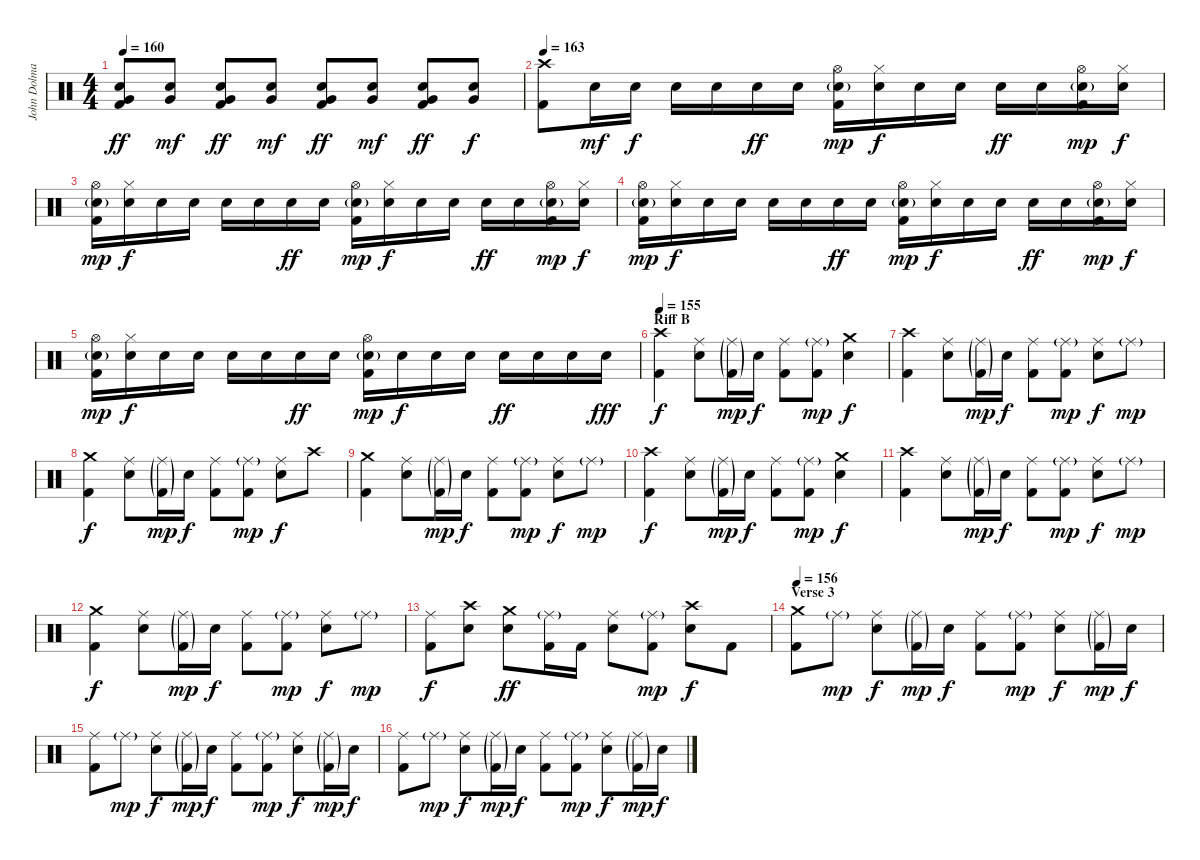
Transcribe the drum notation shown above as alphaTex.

\track ("John Dolmayan" "John Dolma") {instrument percussion}
\staff {score}
\articulation defaults
\ts (4 4)
\tempo 160
\clef neutral
\ks c
("Electric Snare (hit)" "Very Low Tom (hit)" "Kick (hit) 2").8{dy ff} ("Electric Snare (hit)" "Very Low Tom (hit)").8{dy mf} ("Electric Snare (hit)" "Very Low Tom (hit)" "Kick (hit) 2").8{dy ff} ("Electric Snare (hit)" "Very Low Tom (hit)").8{dy mf} ("Electric Snare (hit)" "Very Low Tom (hit)" "Kick (hit) 2").8{dy ff} ("Electric Snare (hit)" "Very Low Tom (hit)").8{dy mf} ("Electric Snare (hit)" "Very Low Tom (hit)" "Kick (hit) 2").8{dy ff} ("Electric Snare (hit)" "Very Low Tom (hit)").8{dy f} |
\tempo 163
("Crash high (hit)" "Kick (hit) 2").8 "Electric Snare (hit)".16{dy mf} "Electric Snare (hit)".16{dy f} "Electric Snare (hit)".16 "Electric Snare (hit)".16 "Electric Snare (hit)".16{dy ff} "Electric Snare (hit)".16 ("Hi-Hat (open)" "Electric Snare (hit)"{g} "Kick (hit) 2").16{dy mp} ("Hi-Hat (closed)" "Electric Snare (hit)").16{dy f} "Electric Snare (hit)".16 "Electric Snare (hit)".16 "Electric Snare (hit)".16{dy ff} "Electric Snare (hit)".16 ("Hi-Hat (open)" "Electric Snare (hit)"{g} "Kick (hit) 2").16{dy mp} ("Hi-Hat (closed)" "Electric Snare (hit)").16{dy f} |
("Hi-Hat (open)" "Electric Snare (hit)"{g} "Kick (hit) 2").16{dy mp} ("Hi-Hat (closed)" "Electric Snare (hit)").16{dy f} "Electric Snare (hit)".16 "Electric Snare (hit)".16 "Electric Snare (hit)".16 "Electric Snare (hit)".16 "Electric Snare (hit)".16{dy ff} "Electric Snare (hit)".16 ("Hi-Hat (open)" "Electric Snare (hit)"{g} "Kick (hit) 2").16{dy mp} ("Hi-Hat (closed)" "Electric Snare (hit)").16{dy f} "Electric Snare (hit)".16 "Electric Snare (hit)".16 "Electric Snare (hit)".16{dy ff} "Electric Snare (hit)".16 ("Hi-Hat (open)" "Electric Snare (hit)"{g} "Kick (hit) 2").16{dy mp} ("Hi-Hat (closed)" "Electric Snare (hit)").16{dy f} |
("Hi-Hat (open)" "Electric Snare (hit)"{g} "Kick (hit) 2").16{dy mp} ("Hi-Hat (closed)" "Electric Snare (hit)").16{dy f} "Electric Snare (hit)".16 "Electric Snare (hit)".16 "Electric Snare (hit)".16 "Electric Snare (hit)".16 "Electric Snare (hit)".16{dy ff} "Electric Snare (hit)".16 ("Hi-Hat (open)" "Electric Snare (hit)"{g} "Kick (hit) 2").16{dy mp} ("Hi-Hat (closed)" "Electric Snare (hit)").16{dy f} "Electric Snare (hit)".16 "Electric Snare (hit)".16 "Electric Snare (hit)".16{dy ff} "Electric Snare (hit)".16 ("Hi-Hat (open)" "Electric Snare (hit)"{g} "Kick (hit) 2").16{dy mp} ("Hi-Hat (closed)" "Electric Snare (hit)").16{dy f} |
("Hi-Hat (open)" "Electric Snare (hit)"{g} "Kick (hit) 2").16{dy mp} ("Hi-Hat (closed)" "Electric Snare (hit)").16{dy f} "Electric Snare (hit)".16 "Electric Snare (hit)".16 "Electric Snare (hit)".16 "Electric Snare (hit)".16 "Electric Snare (hit)".16{dy ff} "Electric Snare (hit)".16 ("Hi-Hat (open)" "Electric Snare (hit)"{g} "Kick (hit) 2").16{dy mp} "Electric Snare (hit)".16{dy f} "Electric Snare (hit)".16 "Electric Snare (hit)".16 "Electric Snare (hit)".16{dy ff} "Electric Snare (hit)".16 "Electric Snare (hit)".16 "Electric Snare (hit)".16{dy fff} |
\section ("" "Riff B")
\tempo 155
("Crash high (hit)" "Kick (hit) 2").4{dy f} ("Ride (middle)" "Electric Snare (hit)").8 ("Ride (middle)"{g} "Kick (hit) 2"{g}).16{dy mp} "Electric Snare (hit)".16{dy f} ("Ride (middle)" "Kick (hit) 2").8 ("Ride (middle)"{g} "Kick (hit) 2").8{dy mp} ("Crash medium (hit)" "Electric Snare (hit)").4{dy f} |
("Crash high (hit)" "Kick (hit) 2").4 ("Ride (middle)" "Electric Snare (hit)").8 ("Ride (middle)"{g} "Kick (hit) 2"{g}).16{dy mp} "Electric Snare (hit)".16{dy f} ("Ride (middle)" "Kick (hit) 2").8 ("Ride (middle)"{g} "Kick (hit) 2").8{dy mp} ("Ride (middle)" "Electric Snare (hit)").8{dy f} "Ride (middle)"{g}.8{dy mp} |
("Crash medium (hit)" "Kick (hit) 2").4{dy f} ("Ride (middle)" "Electric Snare (hit)").8 ("Ride (middle)"{g} "Kick (hit) 2"{g}).16{dy mp} "Electric Snare (hit)".16{dy f} ("Ride (middle)" "Kick (hit) 2").8 ("Ride (middle)"{g} "Kick (hit) 2").8{dy mp} ("Ride (middle)" "Electric Snare (hit)").8{dy f} "Crash high (hit)".8 |
("Crash medium (hit)" "Kick (hit) 2").4 ("Ride (middle)" "Electric Snare (hit)").8 ("Ride (middle)"{g} "Kick (hit) 2"{g}).16{dy mp} "Electric Snare (hit)".16{dy f} ("Ride (middle)" "Kick (hit) 2").8 ("Ride (middle)"{g} "Kick (hit) 2").8{dy mp} ("Ride (middle)" "Electric Snare (hit)").8{dy f} "Ride (middle)"{g}.8{dy mp} |
("Crash high (hit)" "Kick (hit) 2").4{dy f} ("Ride (middle)" "Electric Snare (hit)").8 ("Ride (middle)"{g} "Kick (hit) 2"{g}).16{dy mp} "Electric Snare (hit)".16{dy f} ("Ride (middle)" "Kick (hit) 2").8 ("Ride (middle)"{g} "Kick (hit) 2").8{dy mp} ("Crash medium (hit)" "Electric Snare (hit)").4{dy f} |
("Crash high (hit)" "Kick (hit) 2").4 ("Ride (middle)" "Electric Snare (hit)").8 ("Ride (middle)"{g} "Kick (hit) 2"{g}).16{dy mp} "Electric Snare (hit)".16{dy f} ("Ride (middle)" "Kick (hit) 2").8 ("Ride (middle)"{g} "Kick (hit) 2").8{dy mp} ("Ride (middle)" "Electric Snare (hit)").8{dy f} "Ride (middle)"{g}.8{dy mp} |
("Crash medium (hit)" "Kick (hit) 2").4{dy f} ("Ride (middle)" "Electric Snare (hit)").8 ("Ride (middle)"{g} "Kick (hit) 2"{g}).16{dy mp} "Electric Snare (hit)".16{dy f} ("Ride (middle)" "Kick (hit) 2").8 ("Ride (middle)"{g} "Kick (hit) 2").8{dy mp} ("Ride (middle)" "Electric Snare (hit)").8{dy f} "Ride (middle)"{g}.8{dy mp} |
("Ride (middle)" "Kick (hit) 2").8{dy f} ("Crash high (hit)" "Electric Snare (hit)").8 ("Crash medium (hit)" "Electric Snare (hit)").8{dy ff} ("Ride (middle)"{g} "Kick (hit) 2").16 "Kick (hit) 2".16 ("Ride (middle)" "Electric Snare (hit)").8 ("Ride (middle)"{g} "Kick (hit) 2").8{dy mp} ("Crash high (hit)" "Electric Snare (hit)").8{dy f} "Kick (hit) 2".8 |
\section ("" "Verse 3")
\tempo 156
("Crash medium (hit)" "Kick (hit) 2").8 "Ride (middle)"{g}.8{dy mp} ("Ride (middle)" "Electric Snare (hit)").8{dy f} ("Ride (middle)"{g} "Kick (hit) 2"{g}).16{dy mp} "Electric Snare (hit)".16{dy f} ("Ride (middle)" "Kick (hit) 2").8 ("Ride (middle)"{g} "Kick (hit) 2").8{dy mp} ("Ride (middle)" "Electric Snare (hit)").8{dy f} ("Ride (middle)"{g} "Kick (hit) 2"{g}).16{dy mp} "Electric Snare (hit)".16{dy f} |
("Ride (middle)" "Kick (hit) 2").8 "Ride (middle)"{g}.8{dy mp} ("Ride (middle)" "Electric Snare (hit)").8{dy f} ("Ride (middle)"{g} "Kick (hit) 2"{g}).16{dy mp} "Electric Snare (hit)".16{dy f} ("Ride (middle)" "Kick (hit) 2").8 ("Ride (middle)"{g} "Kick (hit) 2").8{dy mp} ("Ride (middle)" "Electric Snare (hit)").8{dy f} ("Ride (middle)"{g} "Kick (hit) 2"{g}).16{dy mp} "Electric Snare (hit)".16{dy f} |
("Ride (middle)" "Kick (hit) 2").8 "Ride (middle)"{g}.8{dy mp} ("Ride (middle)" "Electric Snare (hit)").8{dy f} ("Ride (middle)"{g} "Kick (hit) 2"{g}).16{dy mp} "Electric Snare (hit)".16{dy f} ("Ride (middle)" "Kick (hit) 2").8 ("Ride (middle)"{g} "Kick (hit) 2").8{dy mp} ("Ride (middle)" "Electric Snare (hit)").8{dy f} ("Ride (middle)"{g} "Kick (hit) 2"{g}).16{dy mp} "Electric Snare (hit)".16{dy f}
